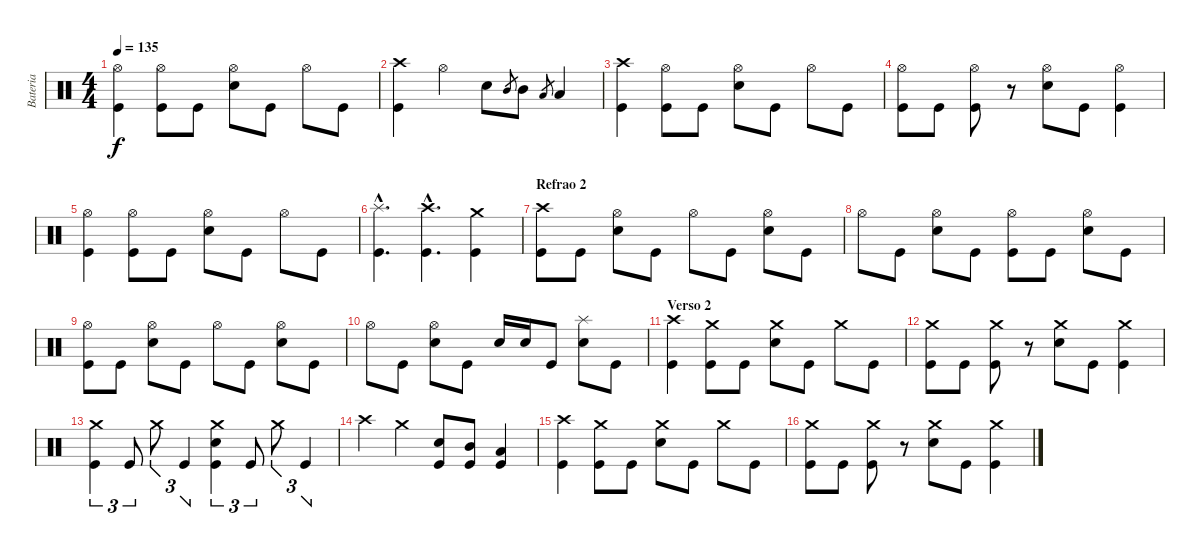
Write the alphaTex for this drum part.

\track ("Bateria" "Bateria") {instrument percussion}
\staff {score}
\articulation defaults
\ts (4 4)
\tempo 135
\clef neutral
\ks c
("Hi-Hat (open)" "Kick (hit)").4{dy f} ("Hi-Hat (open)" "Kick (hit)").8 "Kick (hit)".8 ("Hi-Hat (open)" "Snare (hit) 2").8 "Kick (hit)".8 "Hi-Hat (open)".8 "Kick (hit)".8 |
("Crash high (hit)" "Kick (hit)").4 "Hi-Hat (open)".4 "Snare (hit) 2".8 "Mid Tom (hit)".8{gr} "Mid Tom (hit)".8 "Low Tom (hit)".8{gr} "Low Tom (hit)".4 |
("Crash high (hit)" "Kick (hit)").4 ("Hi-Hat (open)" "Kick (hit)").8 "Kick (hit)".8 ("Hi-Hat (open)" "Snare (hit) 2").8 "Kick (hit)".8 "Hi-Hat (open)".8 "Kick (hit)".8 |
("Hi-Hat (open)" "Kick (hit)").8 "Kick (hit)".8 ("Hi-Hat (open)" "Kick (hit)").8 r.8 ("Hi-Hat (open)" "Snare (hit) 2").8 "Kick (hit)".8 ("Hi-Hat (open)" "Kick (hit)").4 |
("Hi-Hat (open)" "Kick (hit)").4 ("Hi-Hat (open)" "Kick (hit)").8 "Kick (hit)".8 ("Hi-Hat (open)" "Snare (hit) 2").8 "Kick (hit)".8 "Hi-Hat (open)".8 "Kick (hit)".8 |
("Splash (hit)"{hac} "Kick (hit)"{hac}).4{d} ("Crash high (hit)"{hac} "Kick (hit)"{hac}).4{d} ("Crash medium (hit)" "Kick (hit)").4 |
\section ("" "Refrao 2")
("Crash high (hit)" "Kick (hit)").8 "Kick (hit)".8 ("Hi-Hat (open)" "Snare (hit) 2").8 "Kick (hit)".8 "Hi-Hat (open)".8 "Kick (hit)".8 ("Hi-Hat (open)" "Snare (hit) 2").8 "Kick (hit)".8 |
"Hi-Hat (open)".8 "Kick (hit)".8 ("Hi-Hat (open)" "Snare (hit) 2").8 "Kick (hit)".8 ("Hi-Hat (open)" "Kick (hit)").8 "Kick (hit)".8 ("Hi-Hat (open)" "Snare (hit) 2").8 "Kick (hit)".8 |
("Hi-Hat (open)" "Kick (hit)").8 "Kick (hit)".8 ("Hi-Hat (open)" "Snare (hit) 2").8 "Kick (hit)".8 "Hi-Hat (open)".8 "Kick (hit)".8 ("Hi-Hat (open)" "Snare (hit) 2").8 "Kick (hit)".8 |
"Hi-Hat (open)".8 "Kick (hit)".8 ("Hi-Hat (open)" "Snare (hit) 2").8 "Kick (hit)".8 "Snare (hit) 2".16 "Snare (hit) 2".16 "Kick (hit)".8 ("Splash (hit)" "Snare (hit) 2").8 "Kick (hit)".8 |
\section ("" "Verso 2")
("Crash high (hit)" "Kick (hit)").4 ("Crash medium (hit)" "Kick (hit)").8 "Kick (hit)".8 ("Crash medium (hit)" "Snare (hit) 2").8 "Kick (hit)".8 "Crash medium (hit)".8 "Kick (hit)".8 |
("Crash medium (hit)" "Kick (hit)").8 "Kick (hit)".8 ("Crash medium (hit)" "Kick (hit)").8 r.8 ("Crash medium (hit)" "Snare (hit) 2").8 "Kick (hit)".8 ("Crash medium (hit)" "Kick (hit)").4 |
("Crash medium (hit)" "Kick (hit)").4{tu (3 2)} "Kick (hit)".8{tu (3 2)} "Crash medium (hit)".8{tu (3 2)} "Kick (hit)".4{tu (3 2)} ("Crash medium (hit)" "Snare (hit) 2" "Kick (hit)").4{tu (3 2)} "Kick (hit)".8{tu (3 2)} "Crash medium (hit)".8{tu (3 2)} "Kick (hit)".4{tu (3 2)} |
"Crash high (hit)".4 "Crash medium (hit)".4 ("Snare (hit) 2" "Kick (hit)").8 ("Mid Tom (hit)" "Kick (hit)").8 ("Low Tom (hit)" "Kick (hit)").4 |
("Crash high (hit)" "Kick (hit)").4 ("Crash medium (hit)" "Kick (hit)").8 "Kick (hit)".8 ("Crash medium (hit)" "Snare (hit) 2").8 "Kick (hit)".8 "Crash medium (hit)".8 "Kick (hit)".8 |
("Crash medium (hit)" "Kick (hit)").8 "Kick (hit)".8 ("Crash medium (hit)" "Kick (hit)").8 r.8 ("Crash medium (hit)" "Snare (hit) 2").8 "Kick (hit)".8 ("Crash medium (hit)" "Kick (hit)").4
